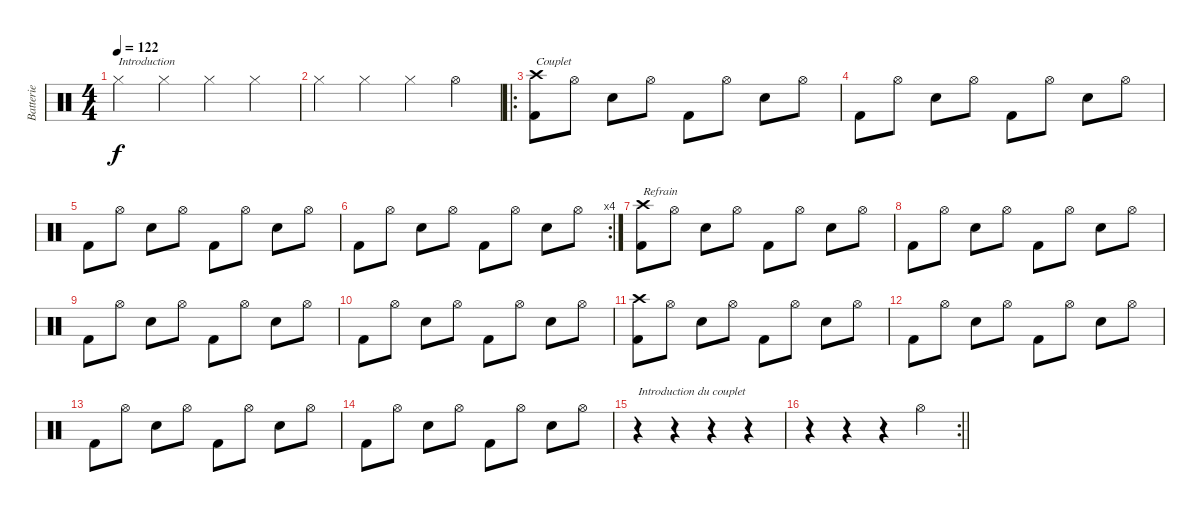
\track ("Batterie" "Batterie") {instrument percussion}
\staff {score}
\articulation defaults
\ts (4 4)
\tempo 122
\clef neutral
\ks c "Hi-Hat (closed)".4{txt "Introduction" dy f} "Hi-Hat (closed)".4 "Hi-Hat (closed)".4 "Hi-Hat (closed)".4
|
"Hi-Hat (closed)".4 "Hi-Hat (closed)".4 "Hi-Hat (closed)".4 "Hi-Hat (open)".4 |
\ro
("Kick (hit) 2" "Crash high (hit)").8{txt "Couplet"} "Hi-Hat (open)".8 "Snare (hit) 2".8 "Hi-Hat (open)".8 "Kick (hit) 2".8 "Hi-Hat (open)".8 "Snare (hit) 2".8 "Hi-Hat (open)".8 |
"Kick (hit) 2".8 "Hi-Hat (open)".8 "Snare (hit) 2".8 "Hi-Hat (open)".8 "Kick (hit) 2".8 "Hi-Hat (open)".8 "Snare (hit) 2".8 "Hi-Hat (open)".8 |
"Kick (hit) 2".8 "Hi-Hat (open)".8 "Snare (hit) 2".8 "Hi-Hat (open)".8 "Kick (hit) 2".8 "Hi-Hat (open)".8 "Snare (hit) 2".8 "Hi-Hat (open)".8 |
\rc 4 "Kick (hit) 2".8 "Hi-Hat (open)".8 "Snare (hit) 2".8 "Hi-Hat (open)".8 "Kick (hit) 2".8 "Hi-Hat (open)".8 "Snare (hit) 2".8 "Hi-Hat (open)".8
|
("Kick (hit) 2" "Crash high (hit)").8{txt "Refrain"} "Hi-Hat (open)".8 "Snare (hit) 2".8 "Hi-Hat (open)".8 "Kick (hit) 2".8 "Hi-Hat (open)".8 "Snare (hit) 2".8 "Hi-Hat (open)".8 |
"Kick (hit) 2".8 "Hi-Hat (open)".8 "Snare (hit) 2".8 "Hi-Hat (open)".8 "Kick (hit) 2".8 "Hi-Hat (open)".8 "Snare (hit) 2".8 "Hi-Hat (open)".8 |
"Kick (hit) 2".8 "Hi-Hat (open)".8 "Snare (hit) 2".8 "Hi-Hat (open)".8 "Kick (hit) 2".8 "Hi-Hat (open)".8 "Snare (hit) 2".8 "Hi-Hat (open)".8 |
"Kick (hit) 2".8 "Hi-Hat (open)".8 "Snare (hit) 2".8 "Hi-Hat (open)".8 "Kick (hit) 2".8 "Hi-Hat (open)".8 "Snare (hit) 2".8 "Hi-Hat (open)".8 |
("Kick (hit) 2" "Crash high (hit)").8 "Hi-Hat (open)".8 "Snare (hit) 2".8 "Hi-Hat (open)".8 "Kick (hit) 2".8 "Hi-Hat (open)".8 "Snare (hit) 2".8 "Hi-Hat (open)".8 |
"Kick (hit) 2".8 "Hi-Hat (open)".8 "Snare (hit) 2".8 "Hi-Hat (open)".8 "Kick (hit) 2".8 "Hi-Hat (open)".8 "Snare (hit) 2".8 "Hi-Hat (open)".8 |
"Kick (hit) 2".8 "Hi-Hat (open)".8 "Snare (hit) 2".8 "Hi-Hat (open)".8 "Kick (hit) 2".8 "Hi-Hat (open)".8 "Snare (hit) 2".8 "Hi-Hat (open)".8 |
"Kick (hit) 2".8 "Hi-Hat (open)".8 "Snare (hit) 2".8 "Hi-Hat (open)".8 "Kick (hit) 2".8 "Hi-Hat (open)".8 "Snare (hit) 2".8 "Hi-Hat (open)".8 |
r.4{txt "Introduction du couplet"} r.4 r.4 r.4 |
\rc 2
\barLineRight lightlight
r.4 r.4 r.4 "Hi-Hat (open)".4
